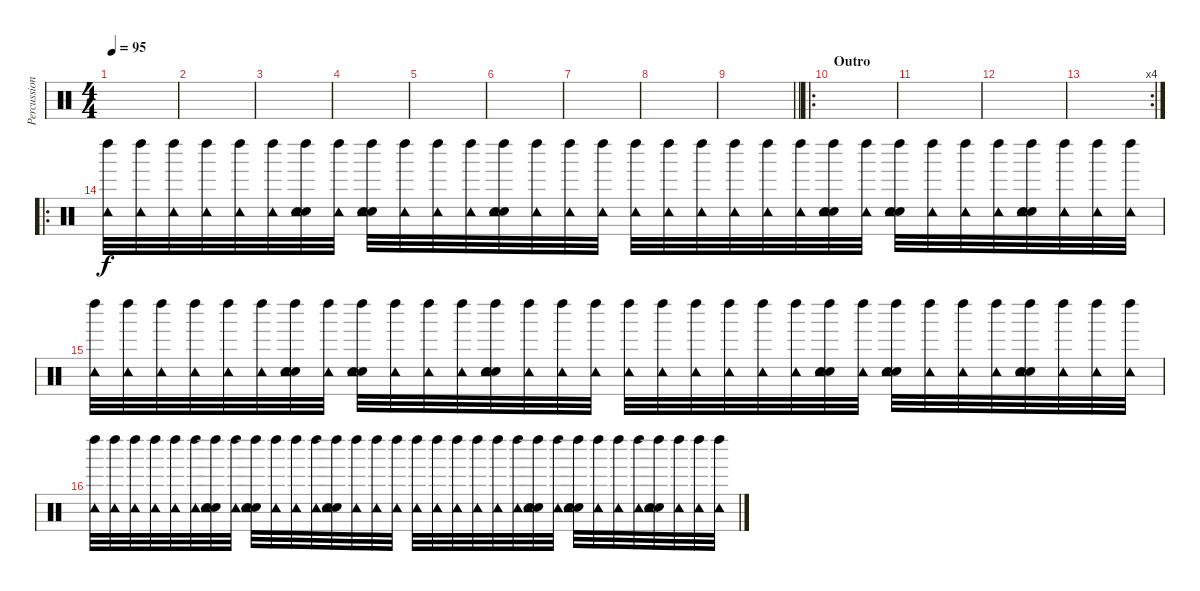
\track ("Percussions" "Percussion") {instrument percussion}
\staff {score}
\articulation defaults
\ts (4 4)
\tempo 95
\clef neutral
\ks c
|
|
|
|
|
|
|
|
\barLineRight lightlight
|
\ro
\section ("" "Outro")
|
|
|
\rc 4
|
\ro
("Tambourine (hit)" "Left Maraca (hit)").32 ("Tambourine (hit)" "Left Maraca (hit)").32 ("Tambourine (hit)" "Left Maraca (hit)").32 ("Tambourine (hit)" "Left Maraca (hit)").32 ("Tambourine (hit)" "Left Maraca (hit)").32 ("Tambourine (hit)" "Left Maraca (hit)").32 ("Snare (hit) 2" "Snare (hit) 2" "Tambourine (hit)" "Left Maraca (hit)").32 ("Tambourine (hit)" "Left Maraca (hit)").32 ("Snare (hit) 2" "Snare (hit) 2" "Tambourine (hit)" "Left Maraca (hit)").32 ("Tambourine (hit)" "Left Maraca (hit)").32 ("Tambourine (hit)" "Left Maraca (hit)").32 ("Tambourine (hit)" "Left Maraca (hit)").32 ("Snare (hit) 2" "Snare (hit) 2" "Tambourine (hit)" "Left Maraca (hit)").32 ("Tambourine (hit)" "Left Maraca (hit)").32 ("Tambourine (hit)" "Left Maraca (hit)").32 ("Tambourine (hit)" "Left Maraca (hit)").32 ("Tambourine (hit)" "Left Maraca (hit)").32 ("Tambourine (hit)" "Left Maraca (hit)").32 ("Tambourine (hit)" "Left Maraca (hit)").32 ("Tambourine (hit)" "Left Maraca (hit)").32 ("Tambourine (hit)" "Left Maraca (hit)").32 ("Tambourine (hit)" "Left Maraca (hit)").32 ("Snare (hit) 2" "Snare (hit) 2" "Tambourine (hit)" "Left Maraca (hit)").32 ("Tambourine (hit)" "Left Maraca (hit)").32 ("Snare (hit) 2" "Snare (hit) 2" "Tambourine (hit)" "Left Maraca (hit)").32 ("Tambourine (hit)" "Left Maraca (hit)").32 ("Tambourine (hit)" "Left Maraca (hit)").32 ("Tambourine (hit)" "Left Maraca (hit)").32 ("Snare (hit) 2" "Snare (hit) 2" "Tambourine (hit)" "Left Maraca (hit)").32 ("Tambourine (hit)" "Left Maraca (hit)").32 ("Tambourine (hit)" "Left Maraca (hit)").32 ("Tambourine (hit)" "Left Maraca (hit)").32 |
("Tambourine (hit)" "Left Maraca (hit)").32 ("Tambourine (hit)" "Left Maraca (hit)").32 ("Tambourine (hit)" "Left Maraca (hit)").32 ("Tambourine (hit)" "Left Maraca (hit)").32 ("Tambourine (hit)" "Left Maraca (hit)").32 ("Tambourine (hit)" "Left Maraca (hit)").32 ("Snare (hit) 2" "Snare (hit) 2" "Tambourine (hit)" "Left Maraca (hit)").32 ("Tambourine (hit)" "Left Maraca (hit)").32 ("Snare (hit) 2" "Snare (hit) 2" "Tambourine (hit)" "Left Maraca (hit)").32 ("Tambourine (hit)" "Left Maraca (hit)").32 ("Tambourine (hit)" "Left Maraca (hit)").32 ("Tambourine (hit)" "Left Maraca (hit)").32 ("Snare (hit) 2" "Snare (hit) 2" "Tambourine (hit)" "Left Maraca (hit)").32 ("Tambourine (hit)" "Left Maraca (hit)").32 ("Tambourine (hit)" "Left Maraca (hit)").32 ("Tambourine (hit)" "Left Maraca (hit)").32 ("Tambourine (hit)" "Left Maraca (hit)").32 ("Tambourine (hit)" "Left Maraca (hit)").32 ("Tambourine (hit)" "Left Maraca (hit)").32 ("Tambourine (hit)" "Left Maraca (hit)").32 ("Tambourine (hit)" "Left Maraca (hit)").32 ("Tambourine (hit)" "Left Maraca (hit)").32 ("Snare (hit) 2" "Snare (hit) 2" "Tambourine (hit)" "Left Maraca (hit)").32 ("Tambourine (hit)" "Left Maraca (hit)").32 ("Snare (hit) 2" "Snare (hit) 2" "Tambourine (hit)" "Left Maraca (hit)").32 ("Tambourine (hit)" "Left Maraca (hit)").32 ("Tambourine (hit)" "Left Maraca (hit)").32 ("Tambourine (hit)" "Left Maraca (hit)").32 ("Snare (hit) 2" "Snare (hit) 2" "Tambourine (hit)" "Left Maraca (hit)").32 ("Tambourine (hit)" "Left Maraca (hit)").32 ("Tambourine (hit)" "Left Maraca (hit)").32 ("Tambourine (hit)" "Left Maraca (hit)").32 |
("Tambourine (hit)" "Left Maraca (hit)").32 ("Tambourine (hit)" "Left Maraca (hit)").32 ("Tambourine (hit)" "Left Maraca (hit)").32 ("Tambourine (hit)" "Left Maraca (hit)").32 ("Tambourine (hit)" "Left Maraca (hit)").32 ("Tambourine (hit)" "Left Maraca (hit)").32 ("Snare (hit) 2" "Snare (hit) 2" "Tambourine (hit)" "Left Maraca (hit)").32 ("Tambourine (hit)" "Left Maraca (hit)").32 ("Snare (hit) 2" "Snare (hit) 2" "Tambourine (hit)" "Left Maraca (hit)").32 ("Tambourine (hit)" "Left Maraca (hit)").32 ("Tambourine (hit)" "Left Maraca (hit)").32 ("Tambourine (hit)" "Left Maraca (hit)").32 ("Snare (hit) 2" "Snare (hit) 2" "Tambourine (hit)" "Left Maraca (hit)").32 ("Tambourine (hit)" "Left Maraca (hit)").32 ("Tambourine (hit)" "Left Maraca (hit)").32 ("Tambourine (hit)" "Left Maraca (hit)").32 ("Tambourine (hit)" "Left Maraca (hit)").32 ("Tambourine (hit)" "Left Maraca (hit)").32 ("Tambourine (hit)" "Left Maraca (hit)").32 ("Tambourine (hit)" "Left Maraca (hit)").32 ("Tambourine (hit)" "Left Maraca (hit)").32 ("Tambourine (hit)" "Left Maraca (hit)").32 ("Snare (hit) 2" "Snare (hit) 2" "Tambourine (hit)" "Left Maraca (hit)").32 ("Tambourine (hit)" "Left Maraca (hit)").32 ("Snare (hit) 2" "Snare (hit) 2" "Tambourine (hit)" "Left Maraca (hit)").32 ("Tambourine (hit)" "Left Maraca (hit)").32 ("Tambourine (hit)" "Left Maraca (hit)").32 ("Tambourine (hit)" "Left Maraca (hit)").32 ("Snare (hit) 2" "Snare (hit) 2" "Tambourine (hit)" "Left Maraca (hit)").32 ("Tambourine (hit)" "Left Maraca (hit)").32 ("Tambourine (hit)" "Left Maraca (hit)").32 ("Tambourine (hit)" "Left Maraca (hit)").32
